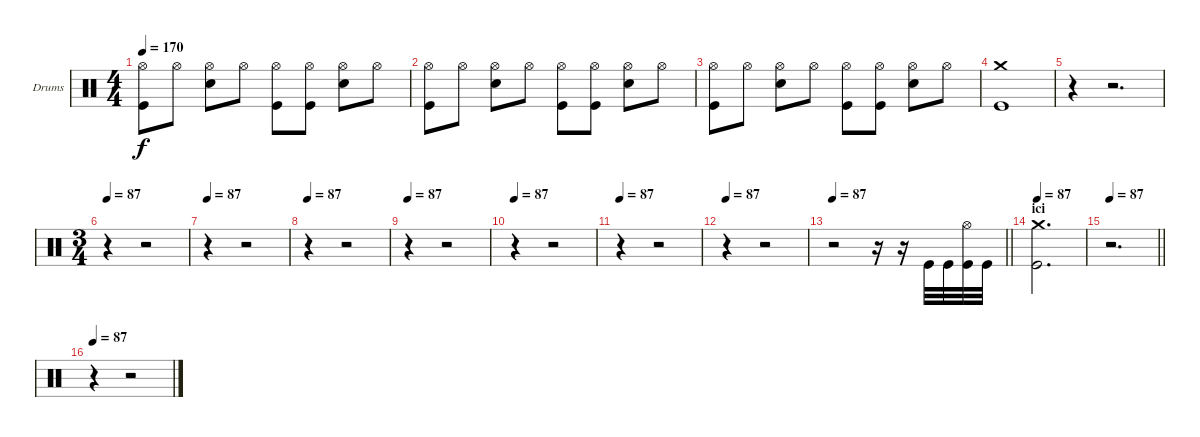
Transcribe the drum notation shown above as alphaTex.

\bracketExtendMode groupsimilarinstruments
\firstSystemTrackNameOrientation horizontal
\otherSystemsTrackNameOrientation horizontal
\track ("Drumkit" "Drums") {instrument percussion}
\staff {score}
\articulation defaults
\ts (4 4)
\tempo 170
\clef neutral
\ks c
("Hi-Hat (open)" "Kick (hit)").8{dy f} "Hi-Hat (open)".8 ("Hi-Hat (open)" "Snare (hit) 2").8 "Hi-Hat (open)".8 ("Hi-Hat (open)" "Kick (hit)").8 ("Hi-Hat (open)" "Kick (hit)").8 ("Hi-Hat (open)" "Snare (hit) 2").8 "Hi-Hat (open)".8 |
("Hi-Hat (open)" "Kick (hit)").8 "Hi-Hat (open)".8 ("Hi-Hat (open)" "Snare (hit) 2").8 "Hi-Hat (open)".8 ("Hi-Hat (open)" "Kick (hit)").8 ("Hi-Hat (open)" "Kick (hit)").8 ("Hi-Hat (open)" "Snare (hit) 2").8 "Hi-Hat (open)".8 |
("Hi-Hat (open)" "Kick (hit)").8 "Hi-Hat (open)".8 ("Hi-Hat (open)" "Snare (hit) 2").8 "Hi-Hat (open)".8 ("Hi-Hat (open)" "Kick (hit)").8 ("Hi-Hat (open)" "Kick (hit)").8 ("Hi-Hat (open)" "Snare (hit) 2").8 "Hi-Hat (open)".8 |
("Crash medium (hit)" "Kick (hit)").1 |
r.4 r.2{d} |
\ts (3 4)
\beaming (8 2 2 2)
\tempo 87
r.4 r.2 |
\tempo 87
r.4 r.2 |
\tempo 87
r.4 r.2 |
\tempo 87
r.4 r.2 |
\tempo 87
r.4 r.2 |
\tempo 87
r.4 r.2 |
\tempo 87
r.4 r.2 |
\tempo 87
\barLineRight lightlight
r.2 r.16 r.16 "Kick (hit)".32 "Kick (hit)".32 ("Hi-Hat (open)" "Kick (hit)").32 "Kick (hit)".32 |
\section ("" "ici")
\tempo 87
("Crash medium (hit)" "Kick (hit)").2{d} |
\tempo 87
\barLineRight lightlight
r.2{d} |
\tempo 87
r.4 r.2
